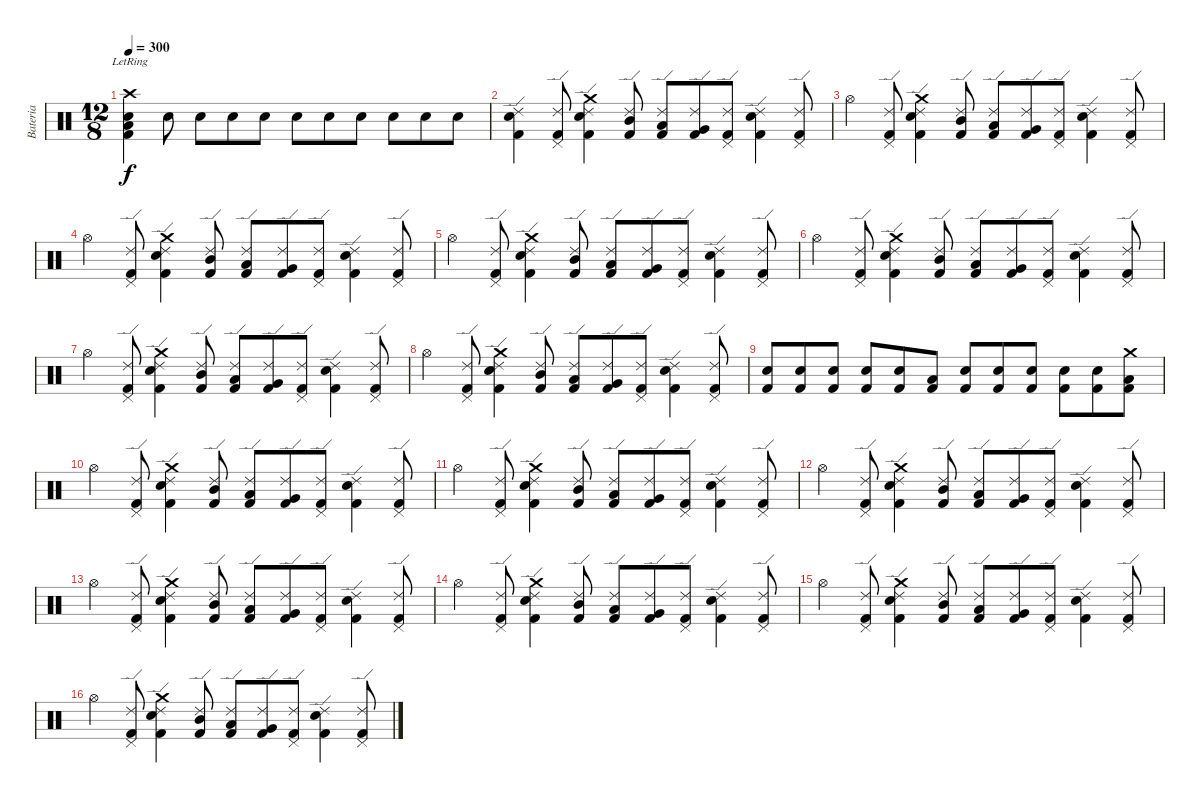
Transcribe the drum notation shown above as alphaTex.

\track ("Bateria" "Bateria") {instrument percussion}
\staff {score}
\articulation defaults
\ts (12 8)
\tempo 300
\clef neutral
\ks c
("Crash high (hit)"{lr} "Snare (hit) 2" "Low Tom (hit)" "Kick (hit) 2").4{dy f} "Snare (hit) 2".8 "Snare (hit) 2".8 "Snare (hit) 2".8 "Snare (hit) 2".8 "Snare (hit) 2".8 "Snare (hit) 2".8 "Snare (hit) 2".8 "Snare (hit) 2".8 "Snare (hit) 2".8 "Snare (hit) 2".8 |
("Ride (edge) 2" "Snare (hit) 2" "Kick (hit) 2").4 ("Ride (edge) 2" "Pedal Hi-Hat (hit)" "Kick (hit) 2").8 ("Ride (edge) 2" "Crash medium (hit)" "Snare (hit) 2" "Kick (hit) 2").4 ("Ride (edge) 2" "Mid Tom (hit)" "Kick (hit) 2").8 ("Ride (edge) 2" "Low Tom (hit)" "Kick (hit) 2").8 ("Ride (edge) 2" "Very Low Tom (hit)" "Kick (hit) 2").8 ("Ride (edge) 2" "Pedal Hi-Hat (hit)" "Kick (hit) 2").8 ("Ride (edge) 2" "Snare (hit) 2" "Kick (hit) 2").4 ("Ride (edge) 2" "Pedal Hi-Hat (hit)" "Kick (hit) 2").8 |
"Hi-Hat (open)".4 ("Ride (edge) 2" "Pedal Hi-Hat (hit)" "Kick (hit) 2").8 ("Ride (edge) 2" "Crash medium (hit)" "Snare (hit) 2" "Kick (hit) 2").4 ("Ride (edge) 2" "Mid Tom (hit)" "Kick (hit) 2").8 ("Ride (edge) 2" "Low Tom (hit)" "Kick (hit) 2").8 ("Ride (edge) 2" "Very Low Tom (hit)" "Kick (hit) 2").8 ("Ride (edge) 2" "Pedal Hi-Hat (hit)" "Kick (hit) 2").8 ("Ride (edge) 2" "Snare (hit) 2" "Kick (hit) 2").4 ("Ride (edge) 2" "Pedal Hi-Hat (hit)" "Kick (hit) 2").8 |
"Hi-Hat (open)".4 ("Ride (edge) 2" "Pedal Hi-Hat (hit)" "Kick (hit) 2").8 ("Ride (edge) 2" "Crash medium (hit)" "Snare (hit) 2" "Kick (hit) 2").4 ("Ride (edge) 2" "Mid Tom (hit)" "Kick (hit) 2").8 ("Ride (edge) 2" "Low Tom (hit)" "Kick (hit) 2").8 ("Ride (edge) 2" "Very Low Tom (hit)" "Kick (hit) 2").8 ("Ride (edge) 2" "Pedal Hi-Hat (hit)" "Kick (hit) 2").8 ("Ride (edge) 2" "Snare (hit) 2" "Kick (hit) 2").4 ("Ride (edge) 2" "Pedal Hi-Hat (hit)" "Kick (hit) 2").8 |
"Hi-Hat (open)".4 ("Ride (edge) 2" "Pedal Hi-Hat (hit)" "Kick (hit) 2").8 ("Ride (edge) 2" "Crash medium (hit)" "Snare (hit) 2" "Kick (hit) 2").4 ("Ride (edge) 2" "Mid Tom (hit)" "Kick (hit) 2").8 ("Ride (edge) 2" "Low Tom (hit)" "Kick (hit) 2").8 ("Ride (edge) 2" "Very Low Tom (hit)" "Kick (hit) 2").8 ("Ride (edge) 2" "Pedal Hi-Hat (hit)" "Kick (hit) 2").8 ("Ride (edge) 2" "Snare (hit) 2" "Kick (hit) 2").4 ("Ride (edge) 2" "Pedal Hi-Hat (hit)" "Kick (hit) 2").8 |
"Hi-Hat (open)".4 ("Ride (edge) 2" "Pedal Hi-Hat (hit)" "Kick (hit) 2").8 ("Ride (edge) 2" "Crash medium (hit)" "Snare (hit) 2" "Kick (hit) 2").4 ("Ride (edge) 2" "Mid Tom (hit)" "Kick (hit) 2").8 ("Ride (edge) 2" "Low Tom (hit)" "Kick (hit) 2").8 ("Ride (edge) 2" "Very Low Tom (hit)" "Kick (hit) 2").8 ("Ride (edge) 2" "Pedal Hi-Hat (hit)" "Kick (hit) 2").8 ("Ride (edge) 2" "Snare (hit) 2" "Kick (hit) 2").4 ("Ride (edge) 2" "Pedal Hi-Hat (hit)" "Kick (hit) 2").8 |
"Hi-Hat (open)".4 ("Ride (edge) 2" "Pedal Hi-Hat (hit)" "Kick (hit) 2").8 ("Ride (edge) 2" "Crash medium (hit)" "Snare (hit) 2" "Kick (hit) 2").4 ("Ride (edge) 2" "Mid Tom (hit)" "Kick (hit) 2").8 ("Ride (edge) 2" "Low Tom (hit)" "Kick (hit) 2").8 ("Ride (edge) 2" "Very Low Tom (hit)" "Kick (hit) 2").8 ("Ride (edge) 2" "Pedal Hi-Hat (hit)" "Kick (hit) 2").8 ("Ride (edge) 2" "Snare (hit) 2" "Kick (hit) 2").4 ("Ride (edge) 2" "Pedal Hi-Hat (hit)" "Kick (hit) 2").8 |
"Hi-Hat (open)".4 ("Ride (edge) 2" "Pedal Hi-Hat (hit)" "Kick (hit) 2").8 ("Ride (edge) 2" "Crash medium (hit)" "Snare (hit) 2" "Kick (hit) 2").4 ("Ride (edge) 2" "Mid Tom (hit)" "Kick (hit) 2").8 ("Ride (edge) 2" "Low Tom (hit)" "Kick (hit) 2").8 ("Ride (edge) 2" "Very Low Tom (hit)" "Kick (hit) 2").8 ("Ride (edge) 2" "Pedal Hi-Hat (hit)" "Kick (hit) 2").8 ("Ride (edge) 2" "Snare (hit) 2" "Kick (hit) 2").4 ("Ride (edge) 2" "Pedal Hi-Hat (hit)" "Kick (hit) 2").8 |
("Snare (hit) 2" "Kick (hit) 2").8 ("Snare (hit) 2" "Kick (hit) 2").8 ("Snare (hit) 2" "Kick (hit) 2").8 ("Snare (hit) 2" "Kick (hit) 2").8 ("Snare (hit) 2" "Kick (hit) 2").8 ("Low Tom (hit)" "Kick (hit) 2").8 ("Snare (hit) 2" "Kick (hit) 2").8 ("Snare (hit) 2" "Kick (hit) 2").8 ("Snare (hit) 2" "Kick (hit) 2").8 ("Snare (hit) 2" "Kick (hit) 2").8 ("Snare (hit) 2" "Kick (hit) 2").8 ("Crash medium (hit)" "Low Tom (hit)" "Kick (hit) 2").8 |
"Hi-Hat (open)".4 ("Ride (edge) 2" "Pedal Hi-Hat (hit)" "Kick (hit) 2").8 ("Ride (edge) 2" "Crash medium (hit)" "Snare (hit) 2" "Kick (hit) 2").4 ("Ride (edge) 2" "Mid Tom (hit)" "Kick (hit) 2").8 ("Ride (edge) 2" "Low Tom (hit)" "Kick (hit) 2").8 ("Ride (edge) 2" "Very Low Tom (hit)" "Kick (hit) 2").8 ("Ride (edge) 2" "Pedal Hi-Hat (hit)" "Kick (hit) 2").8 ("Ride (edge) 2" "Snare (hit) 2" "Kick (hit) 2").4 ("Ride (edge) 2" "Pedal Hi-Hat (hit)" "Kick (hit) 2").8 |
"Hi-Hat (open)".4 ("Ride (edge) 2" "Pedal Hi-Hat (hit)" "Kick (hit) 2").8 ("Ride (edge) 2" "Crash medium (hit)" "Snare (hit) 2" "Kick (hit) 2").4 ("Ride (edge) 2" "Mid Tom (hit)" "Kick (hit) 2").8 ("Ride (edge) 2" "Low Tom (hit)" "Kick (hit) 2").8 ("Ride (edge) 2" "Very Low Tom (hit)" "Kick (hit) 2").8 ("Ride (edge) 2" "Pedal Hi-Hat (hit)" "Kick (hit) 2").8 ("Ride (edge) 2" "Snare (hit) 2" "Kick (hit) 2").4 ("Ride (edge) 2" "Pedal Hi-Hat (hit)" "Kick (hit) 2").8 |
"Hi-Hat (open)".4 ("Ride (edge) 2" "Pedal Hi-Hat (hit)" "Kick (hit) 2").8 ("Ride (edge) 2" "Crash medium (hit)" "Snare (hit) 2" "Kick (hit) 2").4 ("Ride (edge) 2" "Mid Tom (hit)" "Kick (hit) 2").8 ("Ride (edge) 2" "Low Tom (hit)" "Kick (hit) 2").8 ("Ride (edge) 2" "Very Low Tom (hit)" "Kick (hit) 2").8 ("Ride (edge) 2" "Pedal Hi-Hat (hit)" "Kick (hit) 2").8 ("Ride (edge) 2" "Snare (hit) 2" "Kick (hit) 2").4 ("Ride (edge) 2" "Pedal Hi-Hat (hit)" "Kick (hit) 2").8 |
"Hi-Hat (open)".4 ("Ride (edge) 2" "Pedal Hi-Hat (hit)" "Kick (hit) 2").8 ("Ride (edge) 2" "Crash medium (hit)" "Snare (hit) 2" "Kick (hit) 2").4 ("Ride (edge) 2" "Mid Tom (hit)" "Kick (hit) 2").8 ("Ride (edge) 2" "Low Tom (hit)" "Kick (hit) 2").8 ("Ride (edge) 2" "Very Low Tom (hit)" "Kick (hit) 2").8 ("Ride (edge) 2" "Pedal Hi-Hat (hit)" "Kick (hit) 2").8 ("Ride (edge) 2" "Snare (hit) 2" "Kick (hit) 2").4 ("Ride (edge) 2" "Pedal Hi-Hat (hit)" "Kick (hit) 2").8 |
"Hi-Hat (open)".4 ("Ride (edge) 2" "Pedal Hi-Hat (hit)" "Kick (hit) 2").8 ("Ride (edge) 2" "Crash medium (hit)" "Snare (hit) 2" "Kick (hit) 2").4 ("Ride (edge) 2" "Mid Tom (hit)" "Kick (hit) 2").8 ("Ride (edge) 2" "Low Tom (hit)" "Kick (hit) 2").8 ("Ride (edge) 2" "Very Low Tom (hit)" "Kick (hit) 2").8 ("Ride (edge) 2" "Pedal Hi-Hat (hit)" "Kick (hit) 2").8 ("Ride (edge) 2" "Snare (hit) 2" "Kick (hit) 2").4 ("Ride (edge) 2" "Pedal Hi-Hat (hit)" "Kick (hit) 2").8 |
"Hi-Hat (open)".4 ("Ride (edge) 2" "Pedal Hi-Hat (hit)" "Kick (hit) 2").8 ("Ride (edge) 2" "Crash medium (hit)" "Snare (hit) 2" "Kick (hit) 2").4 ("Ride (edge) 2" "Mid Tom (hit)" "Kick (hit) 2").8 ("Ride (edge) 2" "Low Tom (hit)" "Kick (hit) 2").8 ("Ride (edge) 2" "Very Low Tom (hit)" "Kick (hit) 2").8 ("Ride (edge) 2" "Pedal Hi-Hat (hit)" "Kick (hit) 2").8 ("Ride (edge) 2" "Snare (hit) 2" "Kick (hit) 2").4 ("Ride (edge) 2" "Pedal Hi-Hat (hit)" "Kick (hit) 2").8 |
"Hi-Hat (open)".4 ("Ride (edge) 2" "Pedal Hi-Hat (hit)" "Kick (hit) 2").8 ("Ride (edge) 2" "Crash medium (hit)" "Snare (hit) 2" "Kick (hit) 2").4 ("Ride (edge) 2" "Mid Tom (hit)" "Kick (hit) 2").8 ("Ride (edge) 2" "Low Tom (hit)" "Kick (hit) 2").8 ("Ride (edge) 2" "Very Low Tom (hit)" "Kick (hit) 2").8 ("Ride (edge) 2" "Pedal Hi-Hat (hit)" "Kick (hit) 2").8 ("Ride (edge) 2" "Snare (hit) 2" "Kick (hit) 2").4 ("Ride (edge) 2" "Pedal Hi-Hat (hit)" "Kick (hit) 2").8
